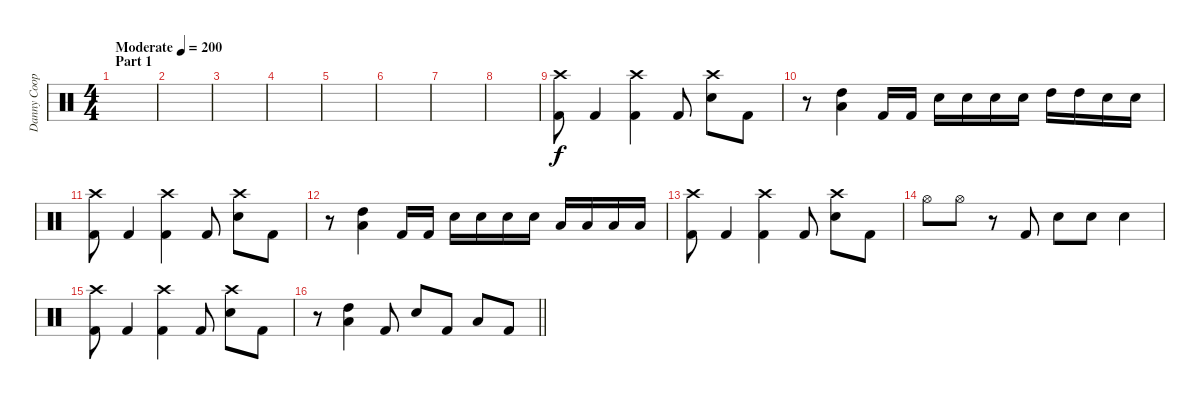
\track ("Danny Cooper" "Danny Coop") {instrument percussion}
\staff {score}
\articulation defaults
\ts (4 4)
\section ("" "Part 1")
\tempo (200 "Moderate")
\clef neutral
\ks c
|
|
|
|
|
|
|
|
("Crash high (hit)" "Kick (hit) 2").8 "Kick (hit) 2".4 ("Crash high (hit)" "Kick (hit) 2").4 "Kick (hit) 2".8 ("Crash high (hit)" "Snare (hit) 2").8 "Kick (hit) 2".8 |
r.8 ("High Tom (hit)" "Low Tom (hit)").4 "Kick (hit) 2".16 "Kick (hit) 2".16 "Snare (hit) 2".16 "Snare (hit) 2".16 "Snare (hit) 2".16 "Snare (hit) 2".16 "High Tom (hit)".16 "High Tom (hit)".16 "Snare (hit) 2".16 "Snare (hit) 2".16 |
("Crash high (hit)" "Kick (hit) 2").8 "Kick (hit) 2".4 ("Crash high (hit)" "Kick (hit) 2").4 "Kick (hit) 2".8 ("Crash high (hit)" "Snare (hit) 2").8 "Kick (hit) 2".8 |
r.8 ("High Tom (hit)" "Low Tom (hit)").4 "Kick (hit) 2".16 "Kick (hit) 2".16 "Snare (hit) 2".16 "Snare (hit) 2".16 "Snare (hit) 2".16 "Snare (hit) 2".16 "Low Tom (hit)".16 "Low Tom (hit)".16 "Low Tom (hit)".16 "Low Tom (hit)".16 |
("Crash high (hit)" "Kick (hit) 2").8 "Kick (hit) 2".4 ("Crash high (hit)" "Kick (hit) 2").4 "Kick (hit) 2".8 ("Crash high (hit)" "Snare (hit) 2").8 "Kick (hit) 2".8 |
"Hi-Hat (open)".8 "Hi-Hat (open)".8 r.8 "Kick (hit) 2".8 "Snare (hit) 2".8 "Snare (hit) 2".8 "Snare (hit) 2".4 |
("Crash high (hit)" "Kick (hit) 2").8 "Kick (hit) 2".4 ("Crash high (hit)" "Kick (hit) 2").4 "Kick (hit) 2".8 ("Crash high (hit)" "Snare (hit) 2").8 "Kick (hit) 2".8 |
\barLineRight lightlight
r.8 ("High Tom (hit)" "Low Tom (hit)").4 "Kick (hit) 2".8 "Snare (hit) 2".8 "Kick (hit) 2".8 "Low Tom (hit)".8 "Kick (hit) 2".8
